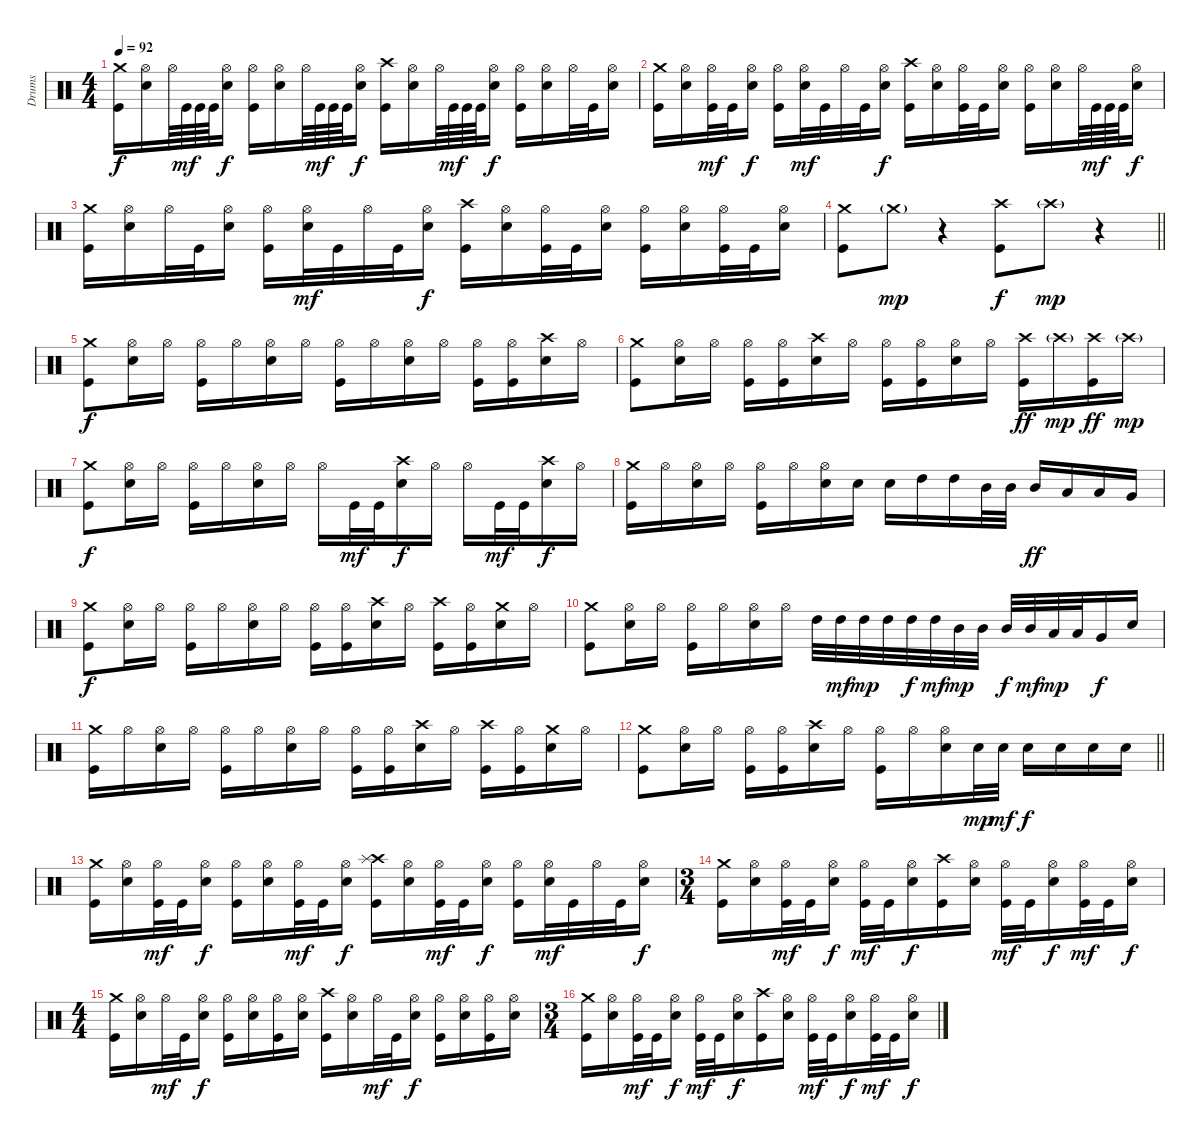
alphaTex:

\track ("Drums" "Drums") {instrument percussion}
\staff {score}
\articulation defaults
\ts (4 4)
\tempo 92
\clef neutral
\ks c
("Crash medium (hit)" "Kick (hit)").16{dy f} ("Hi-Hat (open)" "Snare (hit) 2").16 "Hi-Hat (open)".64 "Kick (hit)".64{dy mf} "Kick (hit)".64 "Kick (hit)".64 ("Hi-Hat (open)" "Snare (hit) 2").16{dy f} ("Hi-Hat (open)" "Kick (hit)").16 ("Hi-Hat (open)" "Snare (hit) 2").16 "Hi-Hat (open)".64 "Kick (hit)".64{dy mf} "Kick (hit)".64 "Kick (hit)".64 ("Hi-Hat (open)" "Snare (hit) 2").16{dy f} ("Crash high (hit)" "Kick (hit)").16 ("Hi-Hat (open)" "Snare (hit) 2").16 "Hi-Hat (open)".64 "Kick (hit)".64{dy mf} "Kick (hit)".64 "Kick (hit)".64 ("Hi-Hat (open)" "Snare (hit) 2").16{dy f} ("Hi-Hat (open)" "Kick (hit)").16 ("Hi-Hat (open)" "Snare (hit) 2").16 "Hi-Hat (open)".32 "Kick (hit)".32 ("Hi-Hat (open)" "Snare (hit) 2").16 |
("Crash medium (hit)" "Kick (hit)").16 ("Hi-Hat (open)" "Snare (hit) 2").16 ("Hi-Hat (open)" "Kick (hit)").32{dy mf} "Kick (hit)".32 ("Hi-Hat (open)" "Snare (hit) 2").16{dy f} ("Hi-Hat (open)" "Kick (hit)").16 ("Hi-Hat (open)" "Snare (hit) 2").32{dy mf} "Kick (hit)".32 "Hi-Hat (open)".32 "Kick (hit)".32 ("Hi-Hat (open)" "Snare (hit) 2").16{dy f} ("Crash high (hit)" "Kick (hit)").16 ("Hi-Hat (open)" "Snare (hit) 2").16 ("Hi-Hat (open)" "Kick (hit)").32 "Kick (hit)".32 ("Hi-Hat (open)" "Snare (hit) 2").16 ("Hi-Hat (open)" "Kick (hit)").16 ("Hi-Hat (open)" "Snare (hit) 2").16 "Hi-Hat (open)".64 "Kick (hit)".64{dy mf} "Kick (hit)".64 "Kick (hit)".64 ("Hi-Hat (open)" "Snare (hit) 2").16{dy f} |
("Crash medium (hit)" "Kick (hit)").16 ("Hi-Hat (open)" "Snare (hit) 2").16 "Hi-Hat (open)".32 "Kick (hit)".32 ("Hi-Hat (open)" "Snare (hit) 2").16 ("Hi-Hat (open)" "Kick (hit)").16 ("Hi-Hat (open)" "Snare (hit) 2").32{dy mf} "Kick (hit)".32 "Hi-Hat (open)".32 "Kick (hit)".32 ("Hi-Hat (open)" "Snare (hit) 2").16{dy f} ("Crash high (hit)" "Kick (hit)").16 ("Hi-Hat (open)" "Snare (hit) 2").16 ("Hi-Hat (open)" "Kick (hit)").32 "Kick (hit)".32 ("Hi-Hat (open)" "Snare (hit) 2").16 ("Hi-Hat (open)" "Kick (hit)").16 ("Hi-Hat (open)" "Snare (hit) 2").16 ("Hi-Hat (open)" "Kick (hit)").32 "Kick (hit)".32 ("Hi-Hat (open)" "Snare (hit) 2").16 |
\barLineRight lightlight
("Crash medium (hit)" "Kick (hit)").8 "Crash medium (hit)"{g}.8{dy mp} r.4 ("Crash high (hit)" "Kick (hit)").8{dy f} "Crash high (hit)"{g}.8{dy mp} r.4 |
("Crash medium (hit)" "Kick (hit)").8{dy f} ("Hi-Hat (open)" "Snare (hit) 2").16 "Hi-Hat (open)".16 ("Hi-Hat (open)" "Kick (hit)").16 "Hi-Hat (open)".16 ("Hi-Hat (open)" "Snare (hit) 2").16 "Hi-Hat (open)".16 ("Hi-Hat (open)" "Kick (hit)").16 "Hi-Hat (open)".16 ("Hi-Hat (open)" "Snare (hit) 2").16 "Hi-Hat (open)".16 ("Hi-Hat (open)" "Kick (hit)").16 ("Hi-Hat (open)" "Kick (hit)").16 ("Crash high (hit)" "Snare (hit) 2").16 "Hi-Hat (open)".16 |
("Crash medium (hit)" "Kick (hit)").8 ("Hi-Hat (open)" "Snare (hit) 2").16 "Hi-Hat (open)".16 ("Hi-Hat (open)" "Kick (hit)").16 ("Hi-Hat (open)" "Kick (hit)").16 ("Crash high (hit)" "Snare (hit) 2").16 "Hi-Hat (open)".16 ("Hi-Hat (open)" "Kick (hit)").16 ("Hi-Hat (open)" "Kick (hit)").16 ("Hi-Hat (open)" "Snare (hit) 2").16 "Hi-Hat (open)".16 ("Crash high (hit)" "Kick (hit)").16{dy ff} "Crash high (hit)"{g}.16{dy mp} ("Crash high (hit)" "Kick (hit)").16{dy ff} "Crash high (hit)"{g}.16{dy mp} |
("Crash medium (hit)" "Kick (hit)").8{dy f} ("Hi-Hat (open)" "Snare (hit) 2").16 "Hi-Hat (open)".16 ("Hi-Hat (open)" "Kick (hit)").16 "Hi-Hat (open)".16 ("Hi-Hat (open)" "Snare (hit) 2").16 "Hi-Hat (open)".16 "Hi-Hat (open)".16 "Kick (hit)".32{dy mf} "Kick (hit)".32 ("Crash high (hit)" "Snare (hit) 2").16{dy f} "Hi-Hat (open)".16 "Hi-Hat (open)".16 "Kick (hit)".32{dy mf} "Kick (hit)".32 ("Crash high (hit)" "Snare (hit) 2").16{dy f} "Hi-Hat (open)".16 |
("Crash medium (hit)" "Kick (hit)").16 "Hi-Hat (open)".16 ("Hi-Hat (open)" "Snare (hit) 2").16 "Hi-Hat (open)".16 ("Hi-Hat (open)" "Kick (hit)").16 "Hi-Hat (open)".16 ("Hi-Hat (open)" "Snare (hit) 2").16 "Snare (hit) 2".16 "Snare (hit) 2".16 "High Tom (hit)".16 "High Tom (hit)".16 "Mid Tom (hit)".32 "Mid Tom (hit)".32 "Mid Tom (hit)".16{dy ff} "Low Tom (hit)".16 "Low Tom (hit)".16 "Very Low Tom (hit)".16 |
("Crash medium (hit)" "Kick (hit)").8{dy f} ("Hi-Hat (open)" "Snare (hit) 2").16 "Hi-Hat (open)".16 ("Hi-Hat (open)" "Kick (hit)").16 "Hi-Hat (open)".16 ("Hi-Hat (open)" "Snare (hit) 2").16 "Hi-Hat (open)".16 ("Hi-Hat (open)" "Kick (hit)").16 ("Hi-Hat (open)" "Kick (hit)").16 ("Crash high (hit)" "Snare (hit) 2").16 "Hi-Hat (open)".16 ("Crash high (hit)" "Kick (hit)").16 ("Hi-Hat (open)" "Kick (hit)").16 ("Crash medium (hit)" "Snare (hit) 2").16 "Hi-Hat (open)".16 |
("Crash medium (hit)" "Kick (hit)").8 ("Hi-Hat (open)" "Snare (hit) 2").16 "Hi-Hat (open)".16 ("Hi-Hat (open)" "Kick (hit)").16 "Hi-Hat (open)".16 ("Hi-Hat (open)" "Snare (hit) 2").16 "Hi-Hat (open)".16 "High Tom (hit)".32 "High Tom (hit)".32{dy mf} "High Tom (hit)".32{dy mp} "High Tom (hit)".32 "High Tom (hit)".32{dy f} "High Tom (hit)".32{dy mf} "Mid Tom (hit)".32{dy mp} "Mid Tom (hit)".32 "Mid Tom (hit)".32{dy f} "Mid Tom (hit)".32{dy mf} "Low Tom (hit)".32{dy mp} "Low Tom (hit)".32 "Very Low Tom (hit)".16{dy f} "Snare (hit) 2".16 |
("Crash medium (hit)" "Kick (hit)").16 "Hi-Hat (open)".16 ("Hi-Hat (open)" "Snare (hit) 2").16 "Hi-Hat (open)".16 ("Hi-Hat (open)" "Kick (hit)").16 "Hi-Hat (open)".16 ("Hi-Hat (open)" "Snare (hit) 2").16 "Hi-Hat (open)".16 ("Hi-Hat (open)" "Kick (hit)").16 ("Hi-Hat (open)" "Kick (hit)").16 ("Crash high (hit)" "Snare (hit) 2").16 "Hi-Hat (open)".16 ("Crash high (hit)" "Kick (hit)").16 ("Hi-Hat (open)" "Kick (hit)").16 ("Crash medium (hit)" "Snare (hit) 2").16 "Hi-Hat (open)".16 |
\barLineRight lightlight
("Crash medium (hit)" "Kick (hit)").8 ("Hi-Hat (open)" "Snare (hit) 2").16 "Hi-Hat (open)".16 ("Hi-Hat (open)" "Kick (hit)").16 ("Hi-Hat (open)" "Kick (hit)").16 ("Crash high (hit)" "Snare (hit) 2").16 "Hi-Hat (open)".16 ("Hi-Hat (open)" "Kick (hit)").16 "Hi-Hat (open)".16 ("Hi-Hat (open)" "Snare (hit) 2").16 "Snare (hit) 2".32{dy mp} "Snare (hit) 2".32{dy mf} "Snare (hit) 2".16{dy f} "Snare (hit) 2".16 "Snare (hit) 2".16 "Snare (hit) 2".16 |
("Crash medium (hit)" "Kick (hit)").16 ("Hi-Hat (open)" "Snare (hit) 2").16 ("Hi-Hat (open)" "Kick (hit)").32{dy mf} "Kick (hit)".32 ("Hi-Hat (open)" "Snare (hit) 2").16{dy f} ("Hi-Hat (open)" "Kick (hit)").16 ("Hi-Hat (open)" "Snare (hit) 2").16 ("Hi-Hat (open)" "Kick (hit)").32{dy mf} "Kick (hit)".32 ("Hi-Hat (open)" "Snare (hit) 2").16{dy f} ("Crash high (hit)" "Splash (hit)" "Kick (hit)").16 ("Hi-Hat (open)" "Snare (hit) 2").16 ("Hi-Hat (open)" "Kick (hit)").32{dy mf} "Kick (hit)".32 ("Hi-Hat (open)" "Snare (hit) 2").16{dy f} ("Hi-Hat (open)" "Kick (hit)").16 ("Hi-Hat (open)" "Snare (hit) 2").32{dy mf} "Kick (hit)".32 "Hi-Hat (open)".32 "Kick (hit)".32 ("Hi-Hat (open)" "Snare (hit) 2").16{dy f} |
\ts (3 4)
\beaming (8 2 2 2)
("Crash medium (hit)" "Kick (hit)").16 ("Hi-Hat (open)" "Snare (hit) 2").16 ("Hi-Hat (open)" "Kick (hit)").32{dy mf} "Kick (hit)".32 ("Hi-Hat (open)" "Snare (hit) 2").16{dy f} ("Hi-Hat (open)" "Kick (hit)").32{dy mf} "Kick (hit)".32 ("Hi-Hat (open)" "Snare (hit) 2").16{dy f} ("Crash high (hit)" "Kick (hit)").16 ("Hi-Hat (open)" "Snare (hit) 2").16 ("Hi-Hat (open)" "Kick (hit)").32{dy mf} "Kick (hit)".32 ("Hi-Hat (open)" "Snare (hit) 2").16{dy f} ("Hi-Hat (open)" "Kick (hit)").32{dy mf} "Kick (hit)".32 ("Hi-Hat (open)" "Snare (hit) 2").16{dy f} |
\ts (4 4)
\beaming (8 2 2 2 2)
("Crash medium (hit)" "Kick (hit)").16 ("Hi-Hat (open)" "Snare (hit) 2").16 "Hi-Hat (open)".32{dy mf} "Kick (hit)".32 ("Hi-Hat (open)" "Snare (hit) 2").16{dy f} ("Hi-Hat (open)" "Kick (hit)").16 ("Hi-Hat (open)" "Snare (hit) 2").16 ("Hi-Hat (open)" "Kick (hit)").16 ("Hi-Hat (open)" "Snare (hit) 2").16 ("Crash high (hit)" "Kick (hit)").16 ("Hi-Hat (open)" "Snare (hit) 2").16 "Hi-Hat (open)".32{dy mf} "Kick (hit)".32 ("Hi-Hat (open)" "Snare (hit) 2").16{dy f} ("Hi-Hat (open)" "Kick (hit)").16 ("Hi-Hat (open)" "Snare (hit) 2").16 ("Hi-Hat (open)" "Kick (hit)").16 ("Hi-Hat (open)" "Snare (hit) 2").16 |
\ts (3 4)
\beaming (8 2 2 2)
("Crash medium (hit)" "Kick (hit)").16 ("Hi-Hat (open)" "Snare (hit) 2").16 ("Hi-Hat (open)" "Kick (hit)").32{dy mf} "Kick (hit)".32 ("Hi-Hat (open)" "Snare (hit) 2").16{dy f} ("Hi-Hat (open)" "Kick (hit)").32{dy mf} "Kick (hit)".32 ("Hi-Hat (open)" "Snare (hit) 2").16{dy f} ("Crash high (hit)" "Kick (hit)").16 ("Hi-Hat (open)" "Snare (hit) 2").16 ("Hi-Hat (open)" "Kick (hit)").32{dy mf} "Kick (hit)".32 ("Hi-Hat (open)" "Snare (hit) 2").16{dy f} ("Hi-Hat (open)" "Kick (hit)").32{dy mf} "Kick (hit)".32 ("Hi-Hat (open)" "Snare (hit) 2").16{dy f}
